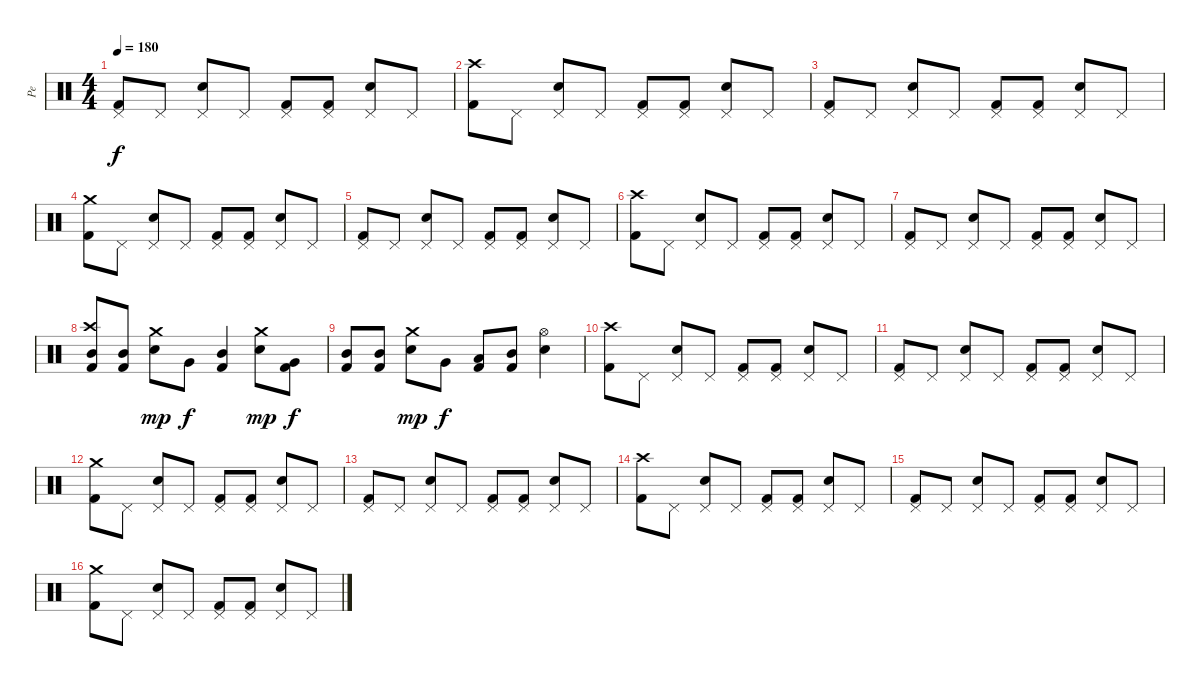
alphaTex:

\track ("Pe" "Pe") {instrument percussion}
\staff {score}
\articulation defaults
\ts (4 4)
\tempo 180
\clef neutral
\ks c
("Pedal Hi-Hat (hit)" "Kick (hit) 2").8{dy f} "Pedal Hi-Hat (hit)".8 ("Pedal Hi-Hat (hit)" "Electric Snare (hit)").8 "Pedal Hi-Hat (hit)".8 ("Pedal Hi-Hat (hit)" "Kick (hit) 2").8 ("Pedal Hi-Hat (hit)" "Kick (hit) 2").8 ("Pedal Hi-Hat (hit)" "Electric Snare (hit)").8 "Pedal Hi-Hat (hit)".8 |
("Crash high (hit)" "Kick (hit) 2").8 "Pedal Hi-Hat (hit)".8 ("Pedal Hi-Hat (hit)" "Electric Snare (hit)").8 "Pedal Hi-Hat (hit)".8 ("Pedal Hi-Hat (hit)" "Kick (hit) 2").8 ("Pedal Hi-Hat (hit)" "Kick (hit) 2").8 ("Pedal Hi-Hat (hit)" "Electric Snare (hit)").8 "Pedal Hi-Hat (hit)".8 |
("Pedal Hi-Hat (hit)" "Kick (hit) 2").8 "Pedal Hi-Hat (hit)".8 ("Pedal Hi-Hat (hit)" "Electric Snare (hit)").8 "Pedal Hi-Hat (hit)".8 ("Pedal Hi-Hat (hit)" "Kick (hit) 2").8 ("Pedal Hi-Hat (hit)" "Kick (hit) 2").8 ("Pedal Hi-Hat (hit)" "Electric Snare (hit)").8 "Pedal Hi-Hat (hit)".8 |
("Crash medium (hit)" "Kick (hit) 2").8 "Pedal Hi-Hat (hit)".8 ("Pedal Hi-Hat (hit)" "Electric Snare (hit)").8 "Pedal Hi-Hat (hit)".8 ("Pedal Hi-Hat (hit)" "Kick (hit) 2").8 ("Pedal Hi-Hat (hit)" "Kick (hit) 2").8 ("Pedal Hi-Hat (hit)" "Electric Snare (hit)").8 "Pedal Hi-Hat (hit)".8 |
("Pedal Hi-Hat (hit)" "Kick (hit) 2").8 "Pedal Hi-Hat (hit)".8 ("Pedal Hi-Hat (hit)" "Electric Snare (hit)").8 "Pedal Hi-Hat (hit)".8 ("Pedal Hi-Hat (hit)" "Kick (hit) 2").8 ("Pedal Hi-Hat (hit)" "Kick (hit) 2").8 ("Pedal Hi-Hat (hit)" "Electric Snare (hit)").8 "Pedal Hi-Hat (hit)".8 |
("Crash high (hit)" "Kick (hit) 2").8 "Pedal Hi-Hat (hit)".8 ("Pedal Hi-Hat (hit)" "Electric Snare (hit)").8 "Pedal Hi-Hat (hit)".8 ("Pedal Hi-Hat (hit)" "Kick (hit) 2").8 ("Pedal Hi-Hat (hit)" "Kick (hit) 2").8 ("Pedal Hi-Hat (hit)" "Electric Snare (hit)").8 "Pedal Hi-Hat (hit)".8 |
("Pedal Hi-Hat (hit)" "Kick (hit) 2").8 "Pedal Hi-Hat (hit)".8 ("Pedal Hi-Hat (hit)" "Electric Snare (hit)").8 "Pedal Hi-Hat (hit)".8 ("Pedal Hi-Hat (hit)" "Kick (hit) 2").8 ("Pedal Hi-Hat (hit)" "Kick (hit) 2").8 ("Pedal Hi-Hat (hit)" "Electric Snare (hit)").8 "Pedal Hi-Hat (hit)".8 |
("Crash high (hit)" "Mid Tom (hit)" "Kick (hit) 2").8 ("Mid Tom (hit)" "Kick (hit) 2").8 ("Crash medium (hit)" "Electric Snare (hit)").8{dy mp} "Very Low Tom (hit)".8{dy f} ("Mid Tom (hit)" "Kick (hit) 2").4 ("Crash medium (hit)" "Electric Snare (hit)").8{dy mp} ("Very Low Tom (hit)" "Kick (hit) 2").8{dy f} |
("Mid Tom (hit)" "Kick (hit) 2").8 ("Mid Tom (hit)" "Kick (hit) 2").8 ("Crash medium (hit)" "Electric Snare (hit)").8{dy mp} "Very Low Tom (hit)".8{dy f} ("Low Tom (hit)" "Kick (hit) 2").8 ("Mid Tom (hit)" "Kick (hit) 2").8 ("Hi-Hat (open)" "Electric Snare (hit)").4 |
("Crash high (hit)" "Kick (hit) 2").8 "Pedal Hi-Hat (hit)".8 ("Pedal Hi-Hat (hit)" "Electric Snare (hit)").8 "Pedal Hi-Hat (hit)".8 ("Pedal Hi-Hat (hit)" "Kick (hit) 2").8 ("Pedal Hi-Hat (hit)" "Kick (hit) 2").8 ("Pedal Hi-Hat (hit)" "Electric Snare (hit)").8 "Pedal Hi-Hat (hit)".8 |
("Pedal Hi-Hat (hit)" "Kick (hit) 2").8 "Pedal Hi-Hat (hit)".8 ("Pedal Hi-Hat (hit)" "Electric Snare (hit)").8 "Pedal Hi-Hat (hit)".8 ("Pedal Hi-Hat (hit)" "Kick (hit) 2").8 ("Pedal Hi-Hat (hit)" "Kick (hit) 2").8 ("Pedal Hi-Hat (hit)" "Electric Snare (hit)").8 "Pedal Hi-Hat (hit)".8 |
("Crash medium (hit)" "Kick (hit) 2").8 "Pedal Hi-Hat (hit)".8 ("Pedal Hi-Hat (hit)" "Electric Snare (hit)").8 "Pedal Hi-Hat (hit)".8 ("Pedal Hi-Hat (hit)" "Kick (hit) 2").8 ("Pedal Hi-Hat (hit)" "Kick (hit) 2").8 ("Pedal Hi-Hat (hit)" "Electric Snare (hit)").8 "Pedal Hi-Hat (hit)".8 |
("Pedal Hi-Hat (hit)" "Kick (hit) 2").8 "Pedal Hi-Hat (hit)".8 ("Pedal Hi-Hat (hit)" "Electric Snare (hit)").8 "Pedal Hi-Hat (hit)".8 ("Pedal Hi-Hat (hit)" "Kick (hit) 2").8 ("Pedal Hi-Hat (hit)" "Kick (hit) 2").8 ("Pedal Hi-Hat (hit)" "Electric Snare (hit)").8 "Pedal Hi-Hat (hit)".8 |
("Crash high (hit)" "Kick (hit) 2").8 "Pedal Hi-Hat (hit)".8 ("Pedal Hi-Hat (hit)" "Electric Snare (hit)").8 "Pedal Hi-Hat (hit)".8 ("Pedal Hi-Hat (hit)" "Kick (hit) 2").8 ("Pedal Hi-Hat (hit)" "Kick (hit) 2").8 ("Pedal Hi-Hat (hit)" "Electric Snare (hit)").8 "Pedal Hi-Hat (hit)".8 |
("Pedal Hi-Hat (hit)" "Kick (hit) 2").8 "Pedal Hi-Hat (hit)".8 ("Pedal Hi-Hat (hit)" "Electric Snare (hit)").8 "Pedal Hi-Hat (hit)".8 ("Pedal Hi-Hat (hit)" "Kick (hit) 2").8 ("Pedal Hi-Hat (hit)" "Kick (hit) 2").8 ("Pedal Hi-Hat (hit)" "Electric Snare (hit)").8 "Pedal Hi-Hat (hit)".8 |
("Crash medium (hit)" "Kick (hit) 2").8 "Pedal Hi-Hat (hit)".8 ("Pedal Hi-Hat (hit)" "Electric Snare (hit)").8 "Pedal Hi-Hat (hit)".8 ("Pedal Hi-Hat (hit)" "Kick (hit) 2").8 ("Pedal Hi-Hat (hit)" "Kick (hit) 2").8 ("Pedal Hi-Hat (hit)" "Electric Snare (hit)").8 "Pedal Hi-Hat (hit)".8
